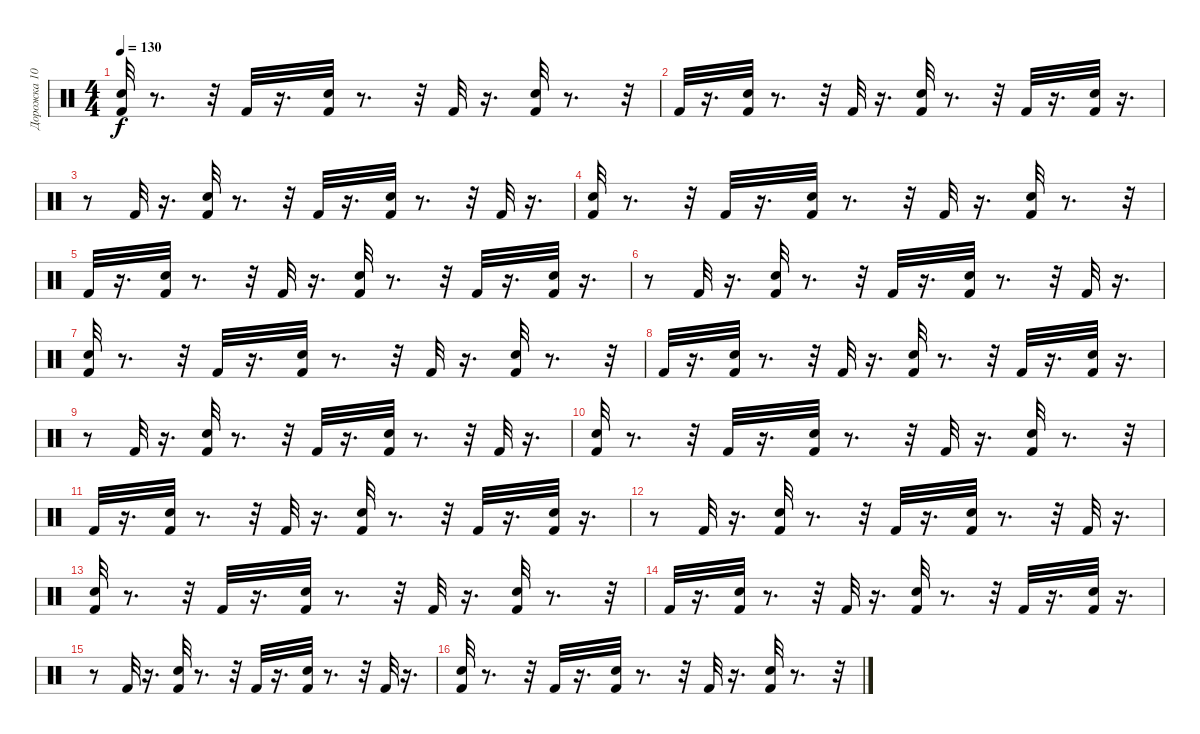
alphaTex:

\track ("Дорожка 10" "Дорожка 10") {instrument percussion}
\staff {score}
\articulation defaults
\ts (4 4)
\tempo 130
\clef neutral
\ks c
("Snare (hit)" "Kick (hit) 2").32{dy f} r.8{d} r.32 "Kick (hit) 2".32 r.16{d} ("Snare (hit)" "Kick (hit) 2").32 r.8{d} r.32 "Kick (hit) 2".32 r.16{d} ("Snare (hit)" "Kick (hit) 2").32 r.8{d} r.32 |
"Kick (hit) 2".32 r.16{d} ("Snare (hit)" "Kick (hit) 2").32 r.8{d} r.32 "Kick (hit) 2".32 r.16{d} ("Snare (hit)" "Kick (hit) 2").32 r.8{d} r.32 "Kick (hit) 2".32 r.16{d} ("Snare (hit)" "Kick (hit) 2").32 r.16{d} |
r.8 "Kick (hit) 2".32 r.16{d} ("Snare (hit)" "Kick (hit) 2").32 r.8{d} r.32 "Kick (hit) 2".32 r.16{d} ("Snare (hit)" "Kick (hit) 2").32 r.8{d} r.32 "Kick (hit) 2".32 r.16{d} |
("Snare (hit)" "Kick (hit) 2").32 r.8{d} r.32 "Kick (hit) 2".32 r.16{d} ("Snare (hit)" "Kick (hit) 2").32 r.8{d} r.32 "Kick (hit) 2".32 r.16{d} ("Snare (hit)" "Kick (hit) 2").32 r.8{d} r.32 |
"Kick (hit) 2".32 r.16{d} ("Snare (hit)" "Kick (hit) 2").32 r.8{d} r.32 "Kick (hit) 2".32 r.16{d} ("Snare (hit)" "Kick (hit) 2").32 r.8{d} r.32 "Kick (hit) 2".32 r.16{d} ("Snare (hit)" "Kick (hit) 2").32 r.16{d} |
r.8 "Kick (hit) 2".32 r.16{d} ("Snare (hit)" "Kick (hit) 2").32 r.8{d} r.32 "Kick (hit) 2".32 r.16{d} ("Snare (hit)" "Kick (hit) 2").32 r.8{d} r.32 "Kick (hit) 2".32 r.16{d} |
("Snare (hit)" "Kick (hit) 2").32 r.8{d} r.32 "Kick (hit) 2".32 r.16{d} ("Snare (hit)" "Kick (hit) 2").32 r.8{d} r.32 "Kick (hit) 2".32 r.16{d} ("Snare (hit)" "Kick (hit) 2").32 r.8{d} r.32 |
"Kick (hit) 2".32 r.16{d} ("Snare (hit)" "Kick (hit) 2").32 r.8{d} r.32 "Kick (hit) 2".32 r.16{d} ("Snare (hit)" "Kick (hit) 2").32 r.8{d} r.32 "Kick (hit) 2".32 r.16{d} ("Snare (hit)" "Kick (hit) 2").32 r.16{d} |
r.8 "Kick (hit) 2".32 r.16{d} ("Snare (hit)" "Kick (hit) 2").32 r.8{d} r.32 "Kick (hit) 2".32 r.16{d} ("Snare (hit)" "Kick (hit) 2").32 r.8{d} r.32 "Kick (hit) 2".32 r.16{d} |
("Snare (hit)" "Kick (hit) 2").32 r.8{d} r.32 "Kick (hit) 2".32 r.16{d} ("Snare (hit)" "Kick (hit) 2").32 r.8{d} r.32 "Kick (hit) 2".32 r.16{d} ("Snare (hit)" "Kick (hit) 2").32 r.8{d} r.32 |
"Kick (hit) 2".32 r.16{d} ("Snare (hit)" "Kick (hit) 2").32 r.8{d} r.32 "Kick (hit) 2".32 r.16{d} ("Snare (hit)" "Kick (hit) 2").32 r.8{d} r.32 "Kick (hit) 2".32 r.16{d} ("Snare (hit)" "Kick (hit) 2").32 r.16{d} |
r.8 "Kick (hit) 2".32 r.16{d} ("Snare (hit)" "Kick (hit) 2").32 r.8{d} r.32 "Kick (hit) 2".32 r.16{d} ("Snare (hit)" "Kick (hit) 2").32 r.8{d} r.32 "Kick (hit) 2".32 r.16{d} |
("Snare (hit)" "Kick (hit) 2").32 r.8{d} r.32 "Kick (hit) 2".32 r.16{d} ("Snare (hit)" "Kick (hit) 2").32 r.8{d} r.32 "Kick (hit) 2".32 r.16{d} ("Snare (hit)" "Kick (hit) 2").32 r.8{d} r.32 |
"Kick (hit) 2".32 r.16{d} ("Snare (hit)" "Kick (hit) 2").32 r.8{d} r.32 "Kick (hit) 2".32 r.16{d} ("Snare (hit)" "Kick (hit) 2").32 r.8{d} r.32 "Kick (hit) 2".32 r.16{d} ("Snare (hit)" "Kick (hit) 2").32 r.16{d} |
r.8 "Kick (hit) 2".32 r.16{d} ("Snare (hit)" "Kick (hit) 2").32 r.8{d} r.32 "Kick (hit) 2".32 r.16{d} ("Snare (hit)" "Kick (hit) 2").32 r.8{d} r.32 "Kick (hit) 2".32 r.16{d} |
("Snare (hit)" "Kick (hit) 2").32 r.8{d} r.32 "Kick (hit) 2".32 r.16{d} ("Snare (hit)" "Kick (hit) 2").32 r.8{d} r.32 "Kick (hit) 2".32 r.16{d} ("Snare (hit)" "Kick (hit) 2").32 r.8{d} r.32
